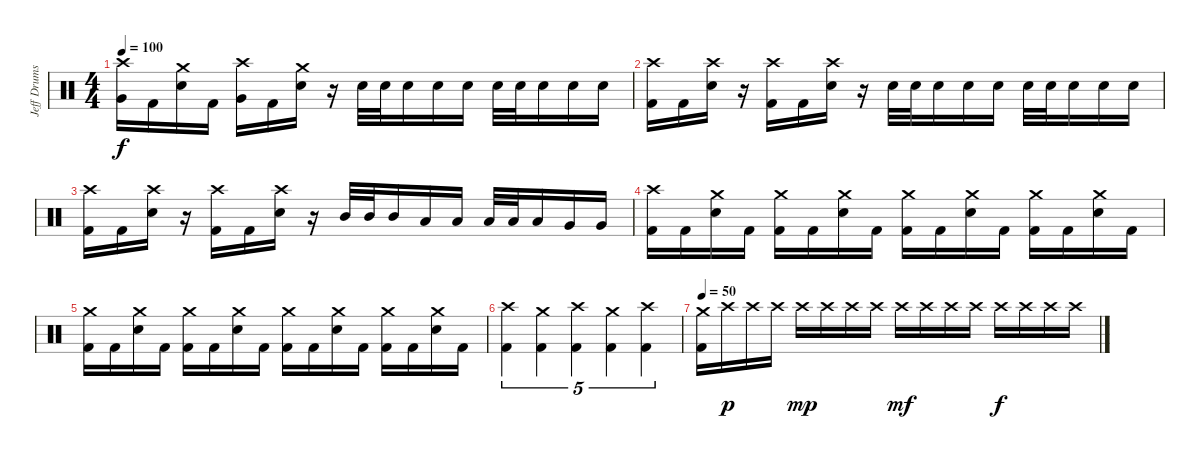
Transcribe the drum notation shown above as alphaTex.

\track ("Jeff Drums" "Jeff Drums") {instrument percussion}
\staff {score}
\articulation defaults
\ts (4 4)
\tempo 100
\clef neutral
\ks c
("Crash high (hit)" "Very Low Tom (hit)").16{dy f} "Kick (hit) 2".16 ("Crash medium (hit)" "Electric Snare (hit)").16 "Kick (hit) 2".16 ("Crash high (hit)" "Very Low Tom (hit)").16 "Kick (hit) 2".16 ("Crash medium (hit)" "Electric Snare (hit)").16 r.16 "Electric Snare (hit)".32 "Electric Snare (hit)".32 "Electric Snare (hit)".16 "Electric Snare (hit)".16 "Electric Snare (hit)".16 "Electric Snare (hit)".32 "Electric Snare (hit)".32 "Electric Snare (hit)".16 "Electric Snare (hit)".16 "Electric Snare (hit)".16 |
("Crash high (hit)" "Kick (hit) 2").16 "Kick (hit) 2".16 ("Crash high (hit)" "Electric Snare (hit)").16 r.16 ("Crash high (hit)" "Kick (hit) 2").16 "Kick (hit) 2".16 ("Crash high (hit)" "Electric Snare (hit)").16 r.16 "Electric Snare (hit)".32 "Electric Snare (hit)".32 "Electric Snare (hit)".16 "Electric Snare (hit)".16 "Electric Snare (hit)".16 "Electric Snare (hit)".32 "Electric Snare (hit)".32 "Electric Snare (hit)".16 "Electric Snare (hit)".16 "Electric Snare (hit)".16 |
("Crash high (hit)" "Kick (hit) 2").16 "Kick (hit) 2".16 ("Crash high (hit)" "Electric Snare (hit)").16 r.16 ("Crash high (hit)" "Kick (hit) 2").16 "Kick (hit) 2".16 ("Crash high (hit)" "Electric Snare (hit)").16 r.16 "Mid Tom (hit)".32 "Mid Tom (hit)".32 "Mid Tom (hit)".16 "Low Tom (hit)".16 "Low Tom (hit)".16 "Low Tom (hit)".32 "Low Tom (hit)".32 "Low Tom (hit)".16 "Very Low Tom (hit)".16 "Very Low Tom (hit)".16 |
("Crash high (hit)" "Kick (hit) 2").16 "Kick (hit) 2".16 ("Crash medium (hit)" "Electric Snare (hit)").16 "Kick (hit) 2".16 ("Crash medium (hit)" "Kick (hit) 2").16 "Kick (hit) 2".16 ("Crash medium (hit)" "Electric Snare (hit)").16 "Kick (hit) 2".16 ("Crash medium (hit)" "Kick (hit) 2").16 "Kick (hit) 2".16 ("Crash medium (hit)" "Electric Snare (hit)").16 "Kick (hit) 2".16 ("Crash medium (hit)" "Kick (hit) 2").16 "Kick (hit) 2".16 ("Crash medium (hit)" "Electric Snare (hit)").16 "Kick (hit) 2".16 |
("Crash medium (hit)" "Kick (hit) 2").16 "Kick (hit) 2".16 ("Crash medium (hit)" "Electric Snare (hit)").16 "Kick (hit) 2".16 ("Crash medium (hit)" "Kick (hit) 2").16 "Kick (hit) 2".16 ("Crash medium (hit)" "Electric Snare (hit)").16 "Kick (hit) 2".16 ("Crash medium (hit)" "Kick (hit) 2").16 "Kick (hit) 2".16 ("Crash medium (hit)" "Electric Snare (hit)").16 "Kick (hit) 2".16 ("Crash medium (hit)" "Kick (hit) 2").16 "Kick (hit) 2".16 ("Crash medium (hit)" "Electric Snare (hit)").16 "Kick (hit) 2".16 |
("Crash high (hit)" "Kick (hit) 2").4{tu (5 4)} ("Crash medium (hit)" "Kick (hit) 2").4{tu (5 4)} ("Crash high (hit)" "Kick (hit) 2").4{tu (5 4)} ("Crash medium (hit)" "Kick (hit) 2").4{tu (5 4)} ("Crash high (hit)" "Kick (hit) 2").4{tu (5 4)} |
\tempo 50
("Crash medium (hit)" "Kick (hit) 2").16 "Crash high (hit)".16{dy p} "Crash high (hit)".16 "Crash high (hit)".16 "Crash high (hit)".16{dy mp} "Crash high (hit)".16 "Crash high (hit)".16 "Crash high (hit)".16 "Crash high (hit)".16{dy mf} "Crash high (hit)".16 "Crash high (hit)".16 "Crash high (hit)".16 "Crash high (hit)".16{dy f} "Crash high (hit)".16 "Crash high (hit)".16 "Crash high (hit)".16
